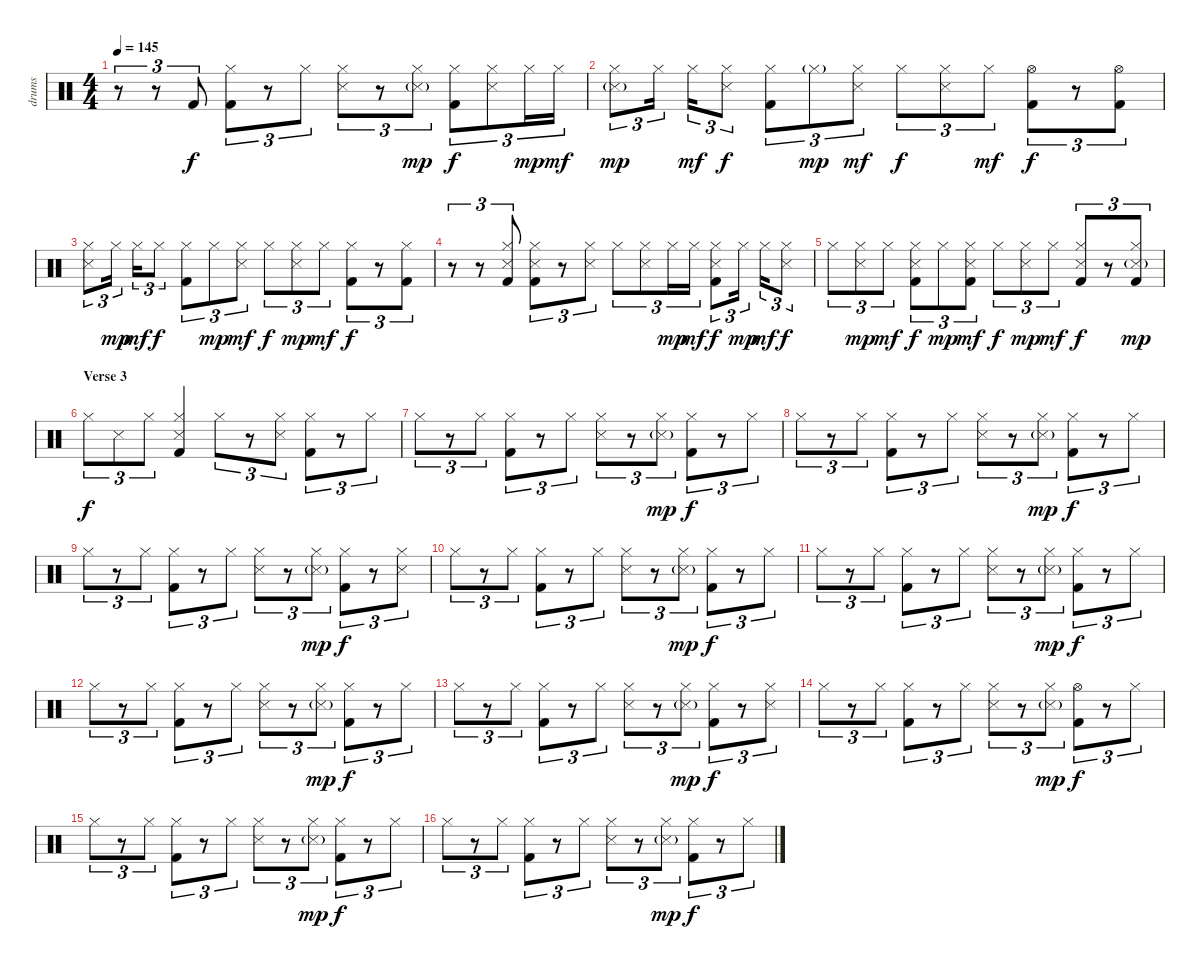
\track ("drums" "drums") {instrument percussion}
\staff {score}
\articulation defaults
\ts (4 4)
\tempo 145
\clef neutral
\ks c
r.8{tu (3 2) dy mf} r.8{tu (3 2)} "Kick (hit) 2".8{tu (3 2) dy f} ("Hi-Hat (closed)" "Kick (hit) 2").8{tu (3 2)} r.8{tu (3 2)} "Hi-Hat (closed)".8{tu (3 2)} ("Hi-Hat (closed)" "Snare (side stick) 3").8{tu (3 2)} r.8{tu (3 2)} ("Hi-Hat (closed)" "Snare (side stick) 3"{g}).8{tu (3 2) dy mp} ("Hi-Hat (closed)" "Kick (hit) 2").8{tu (3 2) dy f} ("Hi-Hat (closed)" "Snare (side stick) 3").8{tu (3 2)} "Hi-Hat (closed)".16{tu (3 2) dy mp} "Hi-Hat (closed)".16{tu (3 2) dy mf} |
("Hi-Hat (closed)" "Snare (side stick) 3"{g}).8{tu (3 2) dy mp} "Hi-Hat (closed)".16{tu (3 2)} "Hi-Hat (closed)".16{tu (3 2) dy mf} ("Hi-Hat (closed)" "Snare (side stick) 3").8{tu (3 2) dy f} ("Hi-Hat (closed)" "Kick (hit) 2").8{tu (3 2)} "Hi-Hat (closed)"{g}.8{tu (3 2) dy mp} ("Hi-Hat (closed)" "Snare (side stick) 3").8{tu (3 2) dy mf} "Hi-Hat (closed)".8{tu (3 2) dy f} ("Hi-Hat (closed)" "Snare (side stick) 3").8{tu (3 2)} "Hi-Hat (closed)".8{tu (3 2) dy mf} ("Hi-Hat (open)" "Kick (hit) 2").8{tu (3 2) dy f} r.8{tu (3 2)} ("Hi-Hat (open)" "Kick (hit) 2").8{tu (3 2)} |
("Hi-Hat (closed)" "Snare (side stick) 3").8{tu (3 2)} "Hi-Hat (closed)".16{tu (3 2) dy mp} "Hi-Hat (closed)".16{tu (3 2) dy mf} "Hi-Hat (closed)".8{tu (3 2) dy f} ("Hi-Hat (closed)" "Kick (hit) 2").8{tu (3 2)} "Hi-Hat (closed)".8{tu (3 2) dy mp} ("Hi-Hat (closed)" "Snare (side stick) 3").8{tu (3 2) dy mf} "Hi-Hat (closed)".8{tu (3 2) dy f} ("Hi-Hat (closed)" "Snare (side stick) 3").8{tu (3 2) dy mp} "Hi-Hat (closed)".8{tu (3 2) dy mf} ("Hi-Hat (closed)" "Kick (hit) 2").8{tu (3 2) dy f} r.8{tu (3 2)} ("Hi-Hat (closed)" "Kick (hit) 2").8{tu (3 2)} |
r.8{tu (3 2)} r.8{tu (3 2)} ("Hi-Hat (closed)" "Snare (side stick) 3" "Kick (hit) 2").8{tu (3 2)} ("Hi-Hat (closed)" "Snare (side stick) 3" "Kick (hit) 2").8{tu (3 2)} r.8{tu (3 2)} ("Hi-Hat (closed)" "Snare (side stick) 3").8{tu (3 2)} "Hi-Hat (closed)".8{tu (3 2)} ("Hi-Hat (closed)" "Snare (side stick) 3").8{tu (3 2)} "Hi-Hat (closed)".16{tu (3 2) dy mp} "Hi-Hat (closed)".16{tu (3 2) dy mf} ("Hi-Hat (closed)" "Snare (side stick) 3" "Kick (hit) 2").8{tu (3 2) dy f} "Hi-Hat (closed)".16{tu (3 2) dy mp} "Hi-Hat (closed)".16{tu (3 2) dy mf} ("Hi-Hat (closed)" "Snare (side stick) 3").8{tu (3 2) dy f} |
"Hi-Hat (closed)".8{tu (3 2)} ("Hi-Hat (closed)" "Snare (side stick) 3").8{tu (3 2) dy mp} "Hi-Hat (closed)".8{tu (3 2) dy mf} ("Hi-Hat (closed)" "Snare (side stick) 3" "Kick (hit) 2").8{tu (3 2) dy f} "Hi-Hat (closed)".8{tu (3 2) dy mp} ("Hi-Hat (closed)" "Snare (side stick) 3" "Kick (hit) 2").8{tu (3 2) dy mf} "Hi-Hat (closed)".8{tu (3 2) dy f} ("Hi-Hat (closed)" "Snare (side stick) 3").8{tu (3 2) dy mp} "Hi-Hat (closed)".8{tu (3 2) dy mf} ("Hi-Hat (closed)" "Snare (side stick) 3" "Kick (hit) 2").8{tu (3 2) dy f} r.8{tu (3 2)} ("Hi-Hat (closed)" "Snare (side stick) 3"{g} "Kick (hit) 2").8{tu (3 2) dy mp} |
\section ("" "Verse 3")
"Hi-Hat (closed)".8{tu (3 2) dy f} "Snare (side stick) 3".8{tu (3 2)} "Hi-Hat (closed)".8{tu (3 2)} ("Hi-Hat (closed)" "Snare (side stick) 3" "Kick (hit) 2").4 "Hi-Hat (closed)".8{tu (3 2)} r.8{tu (3 2)} ("Hi-Hat (closed)" "Snare (side stick) 3").8{tu (3 2)} ("Hi-Hat (closed)" "Kick (hit) 2").8{tu (3 2)} r.8{tu (3 2)} "Hi-Hat (closed)".8{tu (3 2)} |
"Hi-Hat (closed)".8{tu (3 2)} r.8{tu (3 2)} "Hi-Hat (closed)".8{tu (3 2)} ("Hi-Hat (closed)" "Kick (hit) 2").8{tu (3 2)} r.8{tu (3 2)} "Hi-Hat (closed)".8{tu (3 2)} ("Hi-Hat (closed)" "Snare (side stick) 3").8{tu (3 2)} r.8{tu (3 2)} ("Hi-Hat (closed)" "Snare (side stick) 3"{g}).8{tu (3 2) dy mp} ("Hi-Hat (closed)" "Kick (hit) 2").8{tu (3 2) dy f} r.8{tu (3 2)} "Hi-Hat (closed)".8{tu (3 2)} |
"Hi-Hat (closed)".8{tu (3 2)} r.8{tu (3 2)} "Hi-Hat (closed)".8{tu (3 2)} ("Hi-Hat (closed)" "Kick (hit) 2").8{tu (3 2)} r.8{tu (3 2)} "Hi-Hat (closed)".8{tu (3 2)} ("Hi-Hat (closed)" "Snare (side stick) 3").8{tu (3 2)} r.8{tu (3 2)} ("Hi-Hat (closed)" "Snare (side stick) 3"{g}).8{tu (3 2) dy mp} ("Hi-Hat (closed)" "Kick (hit) 2").8{tu (3 2) dy f} r.8{tu (3 2)} "Hi-Hat (closed)".8{tu (3 2)} |
"Hi-Hat (closed)".8{tu (3 2)} r.8{tu (3 2)} "Hi-Hat (closed)".8{tu (3 2)} ("Hi-Hat (closed)" "Kick (hit) 2").8{tu (3 2)} r.8{tu (3 2)} "Hi-Hat (closed)".8{tu (3 2)} ("Hi-Hat (closed)" "Snare (side stick) 3").8{tu (3 2)} r.8{tu (3 2)} ("Hi-Hat (closed)" "Snare (side stick) 3"{g}).8{tu (3 2) dy mp} ("Hi-Hat (closed)" "Kick (hit) 2").8{tu (3 2) dy f} r.8{tu (3 2)} ("Hi-Hat (closed)" "Snare (side stick) 3").8{tu (3 2)} |
"Hi-Hat (closed)".8{tu (3 2)} r.8{tu (3 2)} "Hi-Hat (closed)".8{tu (3 2)} ("Hi-Hat (closed)" "Kick (hit) 2").8{tu (3 2)} r.8{tu (3 2)} "Hi-Hat (closed)".8{tu (3 2)} ("Hi-Hat (closed)" "Snare (side stick) 3").8{tu (3 2)} r.8{tu (3 2)} ("Hi-Hat (closed)" "Snare (side stick) 3"{g}).8{tu (3 2) dy mp} ("Hi-Hat (closed)" "Kick (hit) 2").8{tu (3 2) dy f} r.8{tu (3 2)} "Hi-Hat (closed)".8{tu (3 2)} |
"Hi-Hat (closed)".8{tu (3 2)} r.8{tu (3 2)} "Hi-Hat (closed)".8{tu (3 2)} ("Hi-Hat (closed)" "Kick (hit) 2").8{tu (3 2)} r.8{tu (3 2)} "Hi-Hat (closed)".8{tu (3 2)} ("Hi-Hat (closed)" "Snare (side stick) 3").8{tu (3 2)} r.8{tu (3 2)} ("Hi-Hat (closed)" "Snare (side stick) 3"{g}).8{tu (3 2) dy mp} ("Hi-Hat (closed)" "Kick (hit) 2").8{tu (3 2) dy f} r.8{tu (3 2)} "Hi-Hat (closed)".8{tu (3 2)} |
"Hi-Hat (closed)".8{tu (3 2)} r.8{tu (3 2)} "Hi-Hat (closed)".8{tu (3 2)} ("Hi-Hat (closed)" "Kick (hit) 2").8{tu (3 2)} r.8{tu (3 2)} "Hi-Hat (closed)".8{tu (3 2)} ("Hi-Hat (closed)" "Snare (side stick) 3").8{tu (3 2)} r.8{tu (3 2)} ("Hi-Hat (closed)" "Snare (side stick) 3"{g}).8{tu (3 2) dy mp} ("Hi-Hat (closed)" "Kick (hit) 2").8{tu (3 2) dy f} r.8{tu (3 2)} "Hi-Hat (closed)".8{tu (3 2)} |
"Hi-Hat (closed)".8{tu (3 2)} r.8{tu (3 2)} "Hi-Hat (closed)".8{tu (3 2)} ("Hi-Hat (closed)" "Kick (hit) 2").8{tu (3 2)} r.8{tu (3 2)} "Hi-Hat (closed)".8{tu (3 2)} ("Hi-Hat (closed)" "Snare (side stick) 3").8{tu (3 2)} r.8{tu (3 2)} ("Hi-Hat (closed)" "Snare (side stick) 3"{g}).8{tu (3 2) dy mp} ("Hi-Hat (closed)" "Kick (hit) 2").8{tu (3 2) dy f} r.8{tu (3 2)} ("Hi-Hat (closed)" "Snare (side stick) 3").8{tu (3 2)} |
"Hi-Hat (closed)".8{tu (3 2)} r.8{tu (3 2)} "Hi-Hat (closed)".8{tu (3 2)} ("Hi-Hat (closed)" "Kick (hit) 2").8{tu (3 2)} r.8{tu (3 2)} "Hi-Hat (closed)".8{tu (3 2)} ("Hi-Hat (closed)" "Snare (side stick) 3").8{tu (3 2)} r.8{tu (3 2)} ("Hi-Hat (closed)" "Snare (side stick) 3"{g}).8{tu (3 2) dy mp} ("Hi-Hat (open)" "Kick (hit) 2").8{tu (3 2) dy f} r.8{tu (3 2)} "Hi-Hat (closed)".8{tu (3 2)} |
"Hi-Hat (closed)".8{tu (3 2)} r.8{tu (3 2)} "Hi-Hat (closed)".8{tu (3 2)} ("Hi-Hat (closed)" "Kick (hit) 2").8{tu (3 2)} r.8{tu (3 2)} "Hi-Hat (closed)".8{tu (3 2)} ("Hi-Hat (closed)" "Snare (side stick) 3").8{tu (3 2)} r.8{tu (3 2)} ("Hi-Hat (closed)" "Snare (side stick) 3"{g}).8{tu (3 2) dy mp} ("Hi-Hat (closed)" "Kick (hit) 2").8{tu (3 2) dy f} r.8{tu (3 2)} "Hi-Hat (closed)".8{tu (3 2)} |
"Hi-Hat (closed)".8{tu (3 2)} r.8{tu (3 2)} "Hi-Hat (closed)".8{tu (3 2)} ("Hi-Hat (closed)" "Kick (hit) 2").8{tu (3 2)} r.8{tu (3 2)} "Hi-Hat (closed)".8{tu (3 2)} ("Hi-Hat (closed)" "Snare (side stick) 3").8{tu (3 2)} r.8{tu (3 2)} ("Hi-Hat (closed)" "Snare (side stick) 3"{g}).8{tu (3 2) dy mp} ("Hi-Hat (closed)" "Kick (hit) 2").8{tu (3 2) dy f} r.8{tu (3 2)} "Hi-Hat (closed)".8{tu (3 2)}
